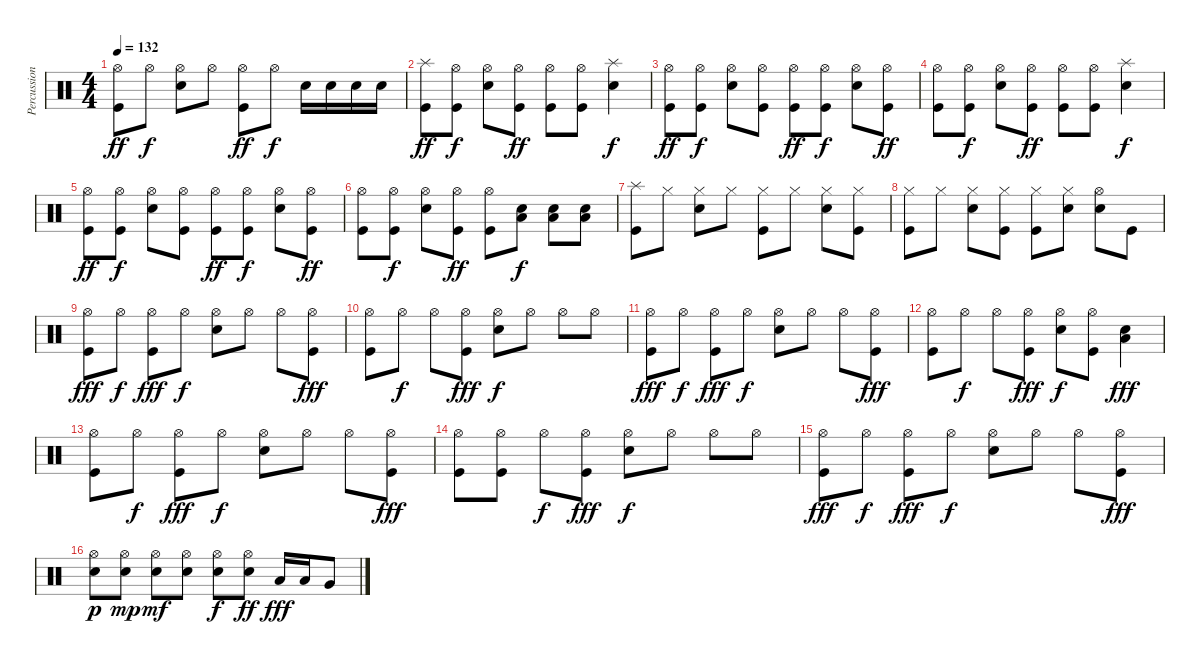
\track ("Percussion" "Percussion") {instrument percussion}
\staff {score}
\articulation defaults
\ts (4 4)
\tempo 132
\clef neutral
\ks c
("Hi-Hat (open)" "Kick (hit)").8{dy ff} "Hi-Hat (open)".8{dy f} ("Hi-Hat (open)" "Snare (hit) 2").8 "Hi-Hat (open)".8 ("Hi-Hat (open)" "Kick (hit)").8{dy ff} "Hi-Hat (open)".8{dy f} "Snare (hit) 2".16 "Snare (hit) 2".16 "Snare (hit) 2".16 "Snare (hit) 2".16 |
("Splash (hit)" "Kick (hit)").8{dy ff} ("Hi-Hat (open)" "Kick (hit)").8{dy f} ("Hi-Hat (open)" "Snare (hit) 2").8 ("Hi-Hat (open)" "Kick (hit)").8{dy ff} ("Hi-Hat (open)" "Kick (hit)").8 ("Hi-Hat (open)" "Kick (hit)").8 ("Splash (hit)" "Snare (hit) 2").4{dy f} |
("Hi-Hat (open)" "Kick (hit)").8{dy ff} ("Hi-Hat (open)" "Kick (hit)").8{dy f} ("Hi-Hat (open)" "Snare (hit) 2").8 ("Hi-Hat (open)" "Kick (hit)").8 ("Hi-Hat (open)" "Kick (hit)").8{dy ff} ("Hi-Hat (open)" "Kick (hit)").8{dy f} ("Hi-Hat (open)" "Snare (hit) 2").8 ("Hi-Hat (open)" "Kick (hit)").8{dy ff} |
("Hi-Hat (open)" "Kick (hit)").8 ("Hi-Hat (open)" "Kick (hit)").8{dy f} ("Hi-Hat (open)" "Snare (hit) 2").8 ("Hi-Hat (open)" "Kick (hit)").8{dy ff} ("Hi-Hat (open)" "Kick (hit)").8 ("Hi-Hat (open)" "Kick (hit)").8 ("Splash (hit)" "Snare (hit) 2").4{dy f} |
("Hi-Hat (open)" "Kick (hit)").8{dy ff} ("Hi-Hat (open)" "Kick (hit)").8{dy f} ("Hi-Hat (open)" "Snare (hit) 2").8 ("Hi-Hat (open)" "Kick (hit)").8 ("Hi-Hat (open)" "Kick (hit)").8{dy ff} ("Hi-Hat (open)" "Kick (hit)").8{dy f} ("Hi-Hat (open)" "Snare (hit) 2").8 ("Hi-Hat (open)" "Kick (hit)").8{dy ff} |
("Hi-Hat (open)" "Kick (hit)").8 ("Hi-Hat (open)" "Kick (hit)").8{dy f} ("Hi-Hat (open)" "Snare (hit) 2").8 ("Hi-Hat (open)" "Kick (hit)").8{dy ff} ("Hi-Hat (open)" "Kick (hit)").8 ("Low Tom (hit)" "Snare (hit) 2").8{dy f} ("Low Tom (hit)" "Snare (hit) 2").8 ("Low Tom (hit)" "Snare (hit) 2").8 |
("Splash (hit)" "Kick (hit)").8 "Hi-Hat (closed)".8 ("Hi-Hat (closed)" "Snare (hit) 2").8 "Hi-Hat (closed)".8 ("Hi-Hat (closed)" "Kick (hit)").8 "Hi-Hat (closed)".8 ("Hi-Hat (closed)" "Snare (hit) 2").8 ("Hi-Hat (closed)" "Kick (hit)").8 |
("Hi-Hat (closed)" "Kick (hit)").8 "Hi-Hat (closed)".8 ("Hi-Hat (closed)" "Snare (hit) 2").8 ("Hi-Hat (closed)" "Kick (hit)").8 ("Hi-Hat (closed)" "Kick (hit)").8 ("Hi-Hat (closed)" "Snare (hit) 2").8 ("Hi-Hat (open)" "Snare (hit) 2").8 "Kick (hit)".8 |
("Hi-Hat (open)" "Kick (hit)").8{dy fff} "Hi-Hat (open)".8{dy f} ("Hi-Hat (open)" "Kick (hit)").8{dy fff} "Hi-Hat (open)".8{dy f} ("Hi-Hat (open)" "Snare (hit) 2").8 "Hi-Hat (open)".8 "Hi-Hat (open)".8 ("Hi-Hat (open)" "Kick (hit)").8{dy fff} |
("Hi-Hat (open)" "Kick (hit)").8 "Hi-Hat (open)".8{dy f} "Hi-Hat (open)".8 ("Hi-Hat (open)" "Kick (hit)").8{dy fff} ("Hi-Hat (open)" "Snare (hit) 2").8{dy f} "Hi-Hat (open)".8 "Hi-Hat (open)".8 "Hi-Hat (open)".8 |
("Hi-Hat (open)" "Kick (hit)").8{dy fff} "Hi-Hat (open)".8{dy f} ("Hi-Hat (open)" "Kick (hit)").8{dy fff} "Hi-Hat (open)".8{dy f} ("Hi-Hat (open)" "Snare (hit) 2").8 "Hi-Hat (open)".8 "Hi-Hat (open)".8 ("Hi-Hat (open)" "Kick (hit)").8{dy fff} |
("Hi-Hat (open)" "Kick (hit)").8 "Hi-Hat (open)".8{dy f} "Hi-Hat (open)".8 ("Hi-Hat (open)" "Kick (hit)").8{dy fff} ("Hi-Hat (open)" "Snare (hit) 2").8{dy f} ("Hi-Hat (open)" "Kick (hit)").8 ("Low Tom (hit)" "Snare (hit) 2").4{dy fff} |
("Hi-Hat (open)" "Kick (hit)").8 "Hi-Hat (open)".8{dy f} ("Hi-Hat (open)" "Kick (hit)").8{dy fff} "Hi-Hat (open)".8{dy f} ("Hi-Hat (open)" "Snare (hit) 2").8 "Hi-Hat (open)".8 "Hi-Hat (open)".8 ("Hi-Hat (open)" "Kick (hit)").8{dy fff} |
("Hi-Hat (open)" "Kick (hit)").8 ("Hi-Hat (open)" "Kick (hit)").8 "Hi-Hat (open)".8{dy f} ("Hi-Hat (open)" "Kick (hit)").8{dy fff} ("Hi-Hat (open)" "Snare (hit) 2").8{dy f} "Hi-Hat (open)".8 "Hi-Hat (open)".8 "Hi-Hat (open)".8 |
("Hi-Hat (open)" "Kick (hit)").8{dy fff} "Hi-Hat (open)".8{dy f} ("Hi-Hat (open)" "Kick (hit)").8{dy fff} "Hi-Hat (open)".8{dy f} ("Hi-Hat (open)" "Snare (hit) 2").8 "Hi-Hat (open)".8 "Hi-Hat (open)".8 ("Hi-Hat (open)" "Kick (hit)").8{dy fff} |
("Hi-Hat (open)" "Snare (hit) 2").8{dy p} ("Hi-Hat (open)" "Snare (hit) 2").8{dy mp} ("Hi-Hat (open)" "Snare (hit) 2").8{dy mf} ("Hi-Hat (open)" "Snare (hit) 2").8 ("Hi-Hat (open)" "Snare (hit) 2").8{dy f} ("Hi-Hat (open)" "Snare (hit) 2").8{dy ff} "Low Tom (hit)".16{dy fff} "Low Tom (hit)".16 "Very Low Tom (hit)".8
